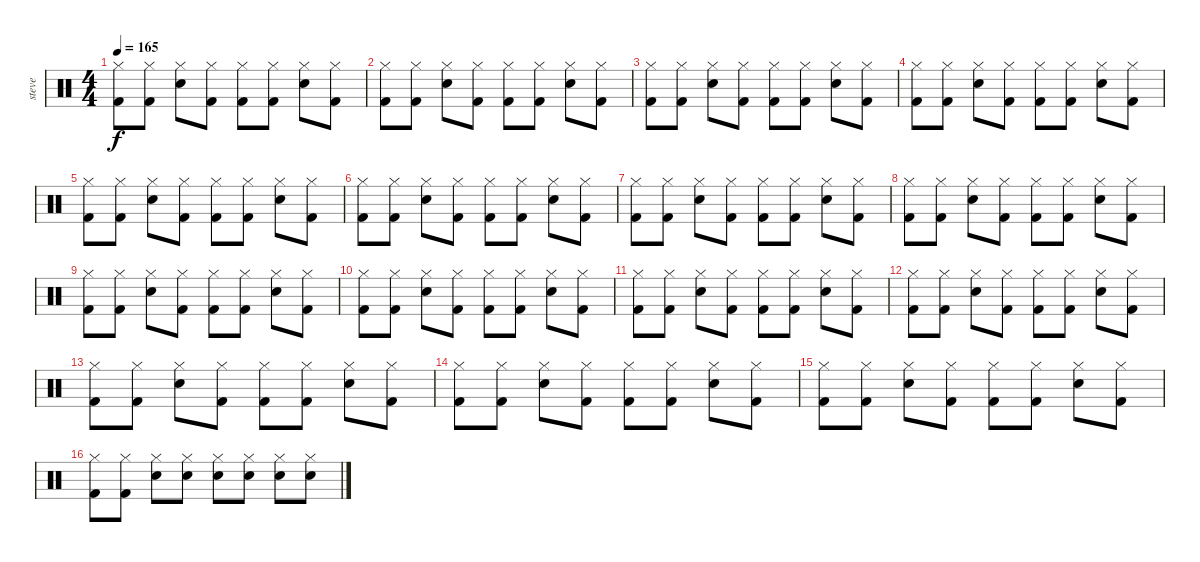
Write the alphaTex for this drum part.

\track ("steve" "steve") {instrument percussion}
\staff {score}
\articulation defaults
\ts (4 4)
\tempo 165
\clef neutral
\ks c
("Hi-Hat (closed)" "Kick (hit) 2").8{dy f} ("Hi-Hat (closed)" "Kick (hit) 2").8 ("Hi-Hat (closed)" "Electric Snare (hit)").8 ("Hi-Hat (closed)" "Kick (hit) 2").8 ("Hi-Hat (closed)" "Kick (hit) 2").8 ("Hi-Hat (closed)" "Kick (hit) 2").8 ("Hi-Hat (closed)" "Electric Snare (hit)").8 ("Hi-Hat (closed)" "Kick (hit) 2").8 |
("Hi-Hat (closed)" "Kick (hit) 2").8 ("Hi-Hat (closed)" "Kick (hit) 2").8 ("Hi-Hat (closed)" "Electric Snare (hit)").8 ("Hi-Hat (closed)" "Kick (hit) 2").8 ("Hi-Hat (closed)" "Kick (hit) 2").8 ("Hi-Hat (closed)" "Kick (hit) 2").8 ("Hi-Hat (closed)" "Electric Snare (hit)").8 ("Hi-Hat (closed)" "Kick (hit) 2").8 |
("Hi-Hat (closed)" "Kick (hit) 2").8 ("Hi-Hat (closed)" "Kick (hit) 2").8 ("Hi-Hat (closed)" "Electric Snare (hit)").8 ("Hi-Hat (closed)" "Kick (hit) 2").8 ("Hi-Hat (closed)" "Kick (hit) 2").8 ("Hi-Hat (closed)" "Kick (hit) 2").8 ("Hi-Hat (closed)" "Electric Snare (hit)").8 ("Hi-Hat (closed)" "Kick (hit) 2").8 |
("Hi-Hat (closed)" "Kick (hit) 2").8 ("Hi-Hat (closed)" "Kick (hit) 2").8 ("Hi-Hat (closed)" "Electric Snare (hit)").8 ("Hi-Hat (closed)" "Kick (hit) 2").8 ("Hi-Hat (closed)" "Kick (hit) 2").8 ("Hi-Hat (closed)" "Kick (hit) 2").8 ("Hi-Hat (closed)" "Electric Snare (hit)").8 ("Hi-Hat (closed)" "Kick (hit) 2").8 |
("Hi-Hat (closed)" "Kick (hit) 2").8 ("Hi-Hat (closed)" "Kick (hit) 2").8 ("Hi-Hat (closed)" "Electric Snare (hit)").8 ("Hi-Hat (closed)" "Kick (hit) 2").8 ("Hi-Hat (closed)" "Kick (hit) 2").8 ("Hi-Hat (closed)" "Kick (hit) 2").8 ("Hi-Hat (closed)" "Electric Snare (hit)").8 ("Hi-Hat (closed)" "Kick (hit) 2").8 |
("Hi-Hat (closed)" "Kick (hit) 2").8 ("Hi-Hat (closed)" "Kick (hit) 2").8 ("Hi-Hat (closed)" "Electric Snare (hit)").8 ("Hi-Hat (closed)" "Kick (hit) 2").8 ("Hi-Hat (closed)" "Kick (hit) 2").8 ("Hi-Hat (closed)" "Kick (hit) 2").8 ("Hi-Hat (closed)" "Electric Snare (hit)").8 ("Hi-Hat (closed)" "Kick (hit) 2").8 |
("Hi-Hat (closed)" "Kick (hit) 2").8 ("Hi-Hat (closed)" "Kick (hit) 2").8 ("Hi-Hat (closed)" "Electric Snare (hit)").8 ("Hi-Hat (closed)" "Kick (hit) 2").8 ("Hi-Hat (closed)" "Kick (hit) 2").8 ("Hi-Hat (closed)" "Kick (hit) 2").8 ("Hi-Hat (closed)" "Electric Snare (hit)").8 ("Hi-Hat (closed)" "Kick (hit) 2").8 |
("Hi-Hat (closed)" "Kick (hit) 2").8 ("Hi-Hat (closed)" "Kick (hit) 2").8 ("Hi-Hat (closed)" "Electric Snare (hit)").8 ("Hi-Hat (closed)" "Kick (hit) 2").8 ("Hi-Hat (closed)" "Kick (hit) 2").8 ("Hi-Hat (closed)" "Kick (hit) 2").8 ("Hi-Hat (closed)" "Electric Snare (hit)").8 ("Hi-Hat (closed)" "Kick (hit) 2").8 |
("Hi-Hat (closed)" "Kick (hit) 2").8 ("Hi-Hat (closed)" "Kick (hit) 2").8 ("Hi-Hat (closed)" "Electric Snare (hit)").8 ("Hi-Hat (closed)" "Kick (hit) 2").8 ("Hi-Hat (closed)" "Kick (hit) 2").8 ("Hi-Hat (closed)" "Kick (hit) 2").8 ("Hi-Hat (closed)" "Electric Snare (hit)").8 ("Hi-Hat (closed)" "Kick (hit) 2").8 |
("Hi-Hat (closed)" "Kick (hit) 2").8 ("Hi-Hat (closed)" "Kick (hit) 2").8 ("Hi-Hat (closed)" "Electric Snare (hit)").8 ("Hi-Hat (closed)" "Kick (hit) 2").8 ("Hi-Hat (closed)" "Kick (hit) 2").8 ("Hi-Hat (closed)" "Kick (hit) 2").8 ("Hi-Hat (closed)" "Electric Snare (hit)").8 ("Hi-Hat (closed)" "Kick (hit) 2").8 |
("Hi-Hat (closed)" "Kick (hit) 2").8 ("Hi-Hat (closed)" "Kick (hit) 2").8 ("Hi-Hat (closed)" "Electric Snare (hit)").8 ("Hi-Hat (closed)" "Kick (hit) 2").8 ("Hi-Hat (closed)" "Kick (hit) 2").8 ("Hi-Hat (closed)" "Kick (hit) 2").8 ("Hi-Hat (closed)" "Electric Snare (hit)").8 ("Hi-Hat (closed)" "Kick (hit) 2").8 |
("Hi-Hat (closed)" "Kick (hit) 2").8 ("Hi-Hat (closed)" "Kick (hit) 2").8 ("Hi-Hat (closed)" "Electric Snare (hit)").8 ("Hi-Hat (closed)" "Kick (hit) 2").8 ("Hi-Hat (closed)" "Kick (hit) 2").8 ("Hi-Hat (closed)" "Kick (hit) 2").8 ("Hi-Hat (closed)" "Electric Snare (hit)").8 ("Hi-Hat (closed)" "Kick (hit) 2").8 |
("Hi-Hat (closed)" "Kick (hit) 2").8 ("Hi-Hat (closed)" "Kick (hit) 2").8 ("Hi-Hat (closed)" "Electric Snare (hit)").8 ("Hi-Hat (closed)" "Kick (hit) 2").8 ("Hi-Hat (closed)" "Kick (hit) 2").8 ("Hi-Hat (closed)" "Kick (hit) 2").8 ("Hi-Hat (closed)" "Electric Snare (hit)").8 ("Hi-Hat (closed)" "Kick (hit) 2").8 |
("Hi-Hat (closed)" "Kick (hit) 2").8 ("Hi-Hat (closed)" "Kick (hit) 2").8 ("Hi-Hat (closed)" "Electric Snare (hit)").8 ("Hi-Hat (closed)" "Kick (hit) 2").8 ("Hi-Hat (closed)" "Kick (hit) 2").8 ("Hi-Hat (closed)" "Kick (hit) 2").8 ("Hi-Hat (closed)" "Electric Snare (hit)").8 ("Hi-Hat (closed)" "Kick (hit) 2").8 |
("Hi-Hat (closed)" "Kick (hit) 2").8 ("Hi-Hat (closed)" "Kick (hit) 2").8 ("Hi-Hat (closed)" "Electric Snare (hit)").8 ("Hi-Hat (closed)" "Kick (hit) 2").8 ("Hi-Hat (closed)" "Kick (hit) 2").8 ("Hi-Hat (closed)" "Kick (hit) 2").8 ("Hi-Hat (closed)" "Electric Snare (hit)").8 ("Hi-Hat (closed)" "Kick (hit) 2").8 |
("Hi-Hat (closed)" "Kick (hit) 2").8 ("Hi-Hat (closed)" "Kick (hit) 2").8 ("Hi-Hat (closed)" "Electric Snare (hit)").8 ("Hi-Hat (closed)" "Electric Snare (hit)").8 ("Hi-Hat (closed)" "Electric Snare (hit)").8 ("Hi-Hat (closed)" "Electric Snare (hit)").8 ("Hi-Hat (closed)" "Electric Snare (hit)").8 ("Hi-Hat (closed)" "Electric Snare (hit)").8
